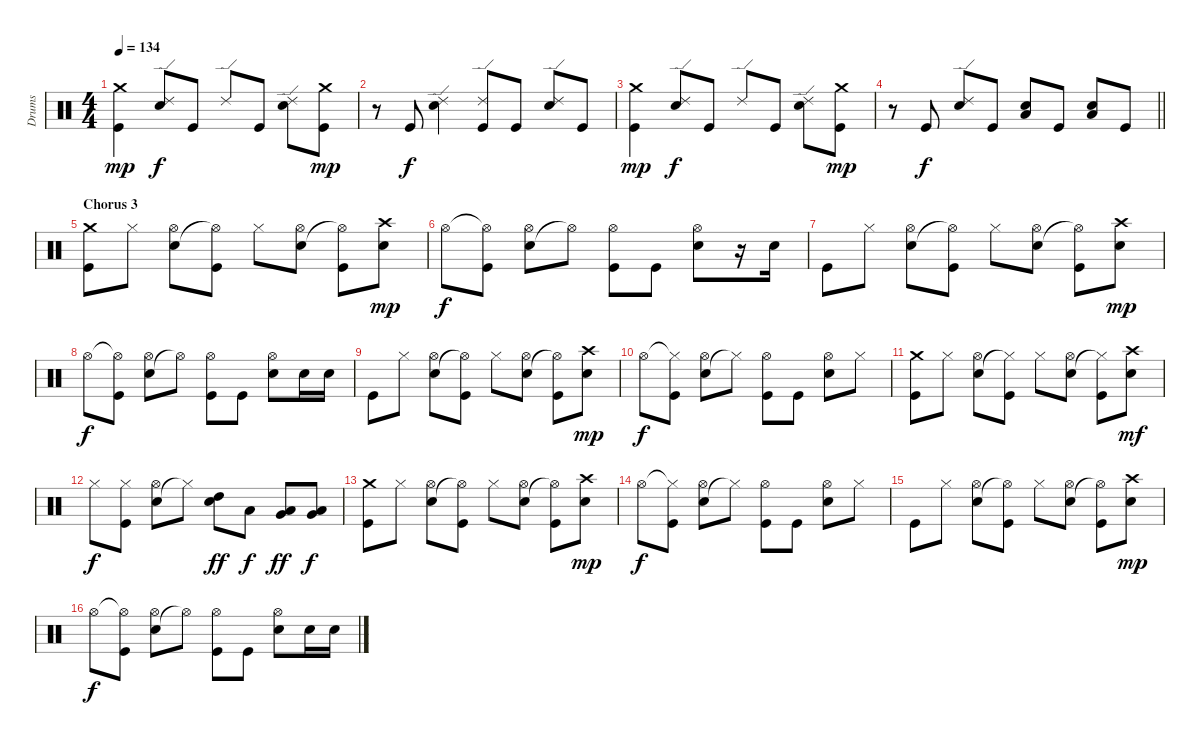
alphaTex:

\track ("Drums" "Drums") {instrument percussion}
\staff {score}
\articulation defaults
\ts (4 4)
\tempo 134
\clef neutral
\ks c
("Crash medium (hit)" "Kick (hit)").4{dy mp} ("Ride (edge) 2" "Snare (hit) 2").8{dy f} "Kick (hit)".8 "Ride (edge) 2".8 "Kick (hit)".8 ("Ride (edge) 2" "Snare (hit) 2").8 ("Crash medium (hit)" "Kick (hit)").8{dy mp} |
r.8 "Kick (hit)".8{dy f} ("Ride (edge) 2" "Snare (hit) 2").4 ("Ride (edge) 2" "Kick (hit)").8 "Kick (hit)".8 ("Ride (edge) 2" "Snare (hit) 2").8 "Kick (hit)".8 |
("Crash medium (hit)" "Kick (hit)").4{dy mp} ("Ride (edge) 2" "Snare (hit) 2").8{dy f} "Kick (hit)".8 "Ride (edge) 2".8 "Kick (hit)".8 ("Ride (edge) 2" "Snare (hit) 2").8 ("Crash medium (hit)" "Kick (hit)").8{dy mp} |
\barLineRight lightlight
r.8 "Kick (hit)".8{dy f} ("Ride (edge) 2" "Snare (hit) 2").8 "Kick (hit)".8 ("Snare (hit) 2" "Low Floor Tom (hit)").8 "Kick (hit)".8 ("Snare (hit) 2" "Low Floor Tom (hit)").8 "Kick (hit)".8 |
\section ("" "Chorus 3")
("Crash medium (hit)" "Kick (hit)").8 "Hi-Hat (closed)".8 ("Snare (hit) 2" "Hi-Hat (open)").8 ("Hi-Hat (open)"{t} "Kick (hit)").8 "Hi-Hat (closed)".8 ("Snare (hit) 2" "Hi-Hat (open)").8 ("Hi-Hat (open)"{t} "Kick (hit)").8 ("Crash high (hit)" "Snare (hit) 2").8{dy mp} |
"Hi-Hat (open)".8{dy f} ("Hi-Hat (open)"{t} "Kick (hit)").8 ("Snare (hit) 2" "Hi-Hat (open)").8 "Hi-Hat (open)"{t}.8 ("Hi-Hat (open)" "Kick (hit)").8 "Kick (hit)".8 ("Snare (hit) 2" "Hi-Hat (open)").8 r.16 "Snare (hit) 2".16 |
"Kick (hit)".8 "Hi-Hat (closed)".8 ("Snare (hit) 2" "Hi-Hat (open)").8 ("Hi-Hat (open)"{t} "Kick (hit)").8 "Hi-Hat (closed)".8 ("Snare (hit) 2" "Hi-Hat (open)").8 ("Hi-Hat (open)"{t} "Kick (hit)").8 ("Crash high (hit)" "Snare (hit) 2").8{dy mp} |
"Hi-Hat (open)".8{dy f} ("Hi-Hat (open)"{t} "Kick (hit)").8 ("Snare (hit) 2" "Hi-Hat (open)").8 "Hi-Hat (open)"{t}.8 ("Hi-Hat (open)" "Kick (hit)").8 "Kick (hit)".8 ("Snare (hit) 2" "Hi-Hat (open)").8 "Snare (hit) 2".16 "Snare (hit) 2".16 |
"Kick (hit)".8 "Hi-Hat (closed)".8 ("Snare (hit) 2" "Hi-Hat (open)").8 ("Hi-Hat (open)"{t} "Kick (hit)").8 "Hi-Hat (closed)".8 ("Snare (hit) 2" "Hi-Hat (open)").8 ("Hi-Hat (open)"{t} "Kick (hit)").8 ("Crash high (hit)" "Snare (hit) 2").8{dy mp} |
"Hi-Hat (open)".8{dy f} ("Hi-Hat (closed)"{t} "Kick (hit)").8 ("Snare (hit) 2" "Hi-Hat (open)").8 "Hi-Hat (closed)"{t}.8 ("Hi-Hat (open)" "Kick (hit)").8 "Kick (hit)".8 ("Snare (hit) 2" "Hi-Hat (open)").8 "Hi-Hat (closed)".8 |
("Crash medium (hit)" "Kick (hit)").8 "Hi-Hat (closed)".8 ("Snare (hit) 2" "Hi-Hat (open)").8 ("Hi-Hat (closed)"{t} "Kick (hit)").8 "Hi-Hat (closed)".8 ("Snare (hit) 2" "Hi-Hat (open)").8 ("Hi-Hat (closed)"{t} "Kick (hit)").8 ("Crash high (hit)" "Snare (hit) 2").8{dy mf} |
"Hi-Hat (closed)".8{dy f} ("Hi-Hat (closed)" "Kick (hit)").8 ("Snare (hit) 2" "Hi-Hat (open)").8 "Hi-Hat (closed)"{t}.8 ("Snare (hit) 2" "High Tom (hit)").8{dy ff} "Low Tom (hit)".8{dy f} ("Low Tom (hit)" "Very Low Tom (hit)").8{dy ff} ("Low Tom (hit)" "Very Low Tom (hit)").8{dy f} |
("Crash medium (hit)" "Kick (hit)").8 "Hi-Hat (closed)".8 ("Snare (hit) 2" "Hi-Hat (open)").8 ("Hi-Hat (open)"{t} "Kick (hit)").8 "Hi-Hat (closed)".8 ("Snare (hit) 2" "Hi-Hat (open)").8 ("Hi-Hat (open)"{t} "Kick (hit)").8 ("Crash high (hit)" "Snare (hit) 2").8{dy mp} |
"Hi-Hat (open)".8{dy f} ("Hi-Hat (closed)"{t} "Kick (hit)").8 ("Snare (hit) 2" "Hi-Hat (open)").8 "Hi-Hat (closed)"{t}.8 ("Hi-Hat (open)" "Kick (hit)").8 "Kick (hit)".8 ("Snare (hit) 2" "Hi-Hat (open)").8 "Hi-Hat (closed)".8 |
"Kick (hit)".8 "Hi-Hat (closed)".8 ("Snare (hit) 2" "Hi-Hat (open)").8 ("Hi-Hat (open)"{t} "Kick (hit)").8 "Hi-Hat (closed)".8 ("Snare (hit) 2" "Hi-Hat (open)").8 ("Hi-Hat (open)"{t} "Kick (hit)").8 ("Crash high (hit)" "Snare (hit) 2").8{dy mp} |
"Hi-Hat (open)".8{dy f} ("Hi-Hat (open)"{t} "Kick (hit)").8 ("Snare (hit) 2" "Hi-Hat (open)").8 "Hi-Hat (open)"{t}.8 ("Hi-Hat (open)" "Kick (hit)").8 "Kick (hit)".8 ("Snare (hit) 2" "Hi-Hat (open)").8 "Snare (hit) 2".16 "Snare (hit) 2".16
